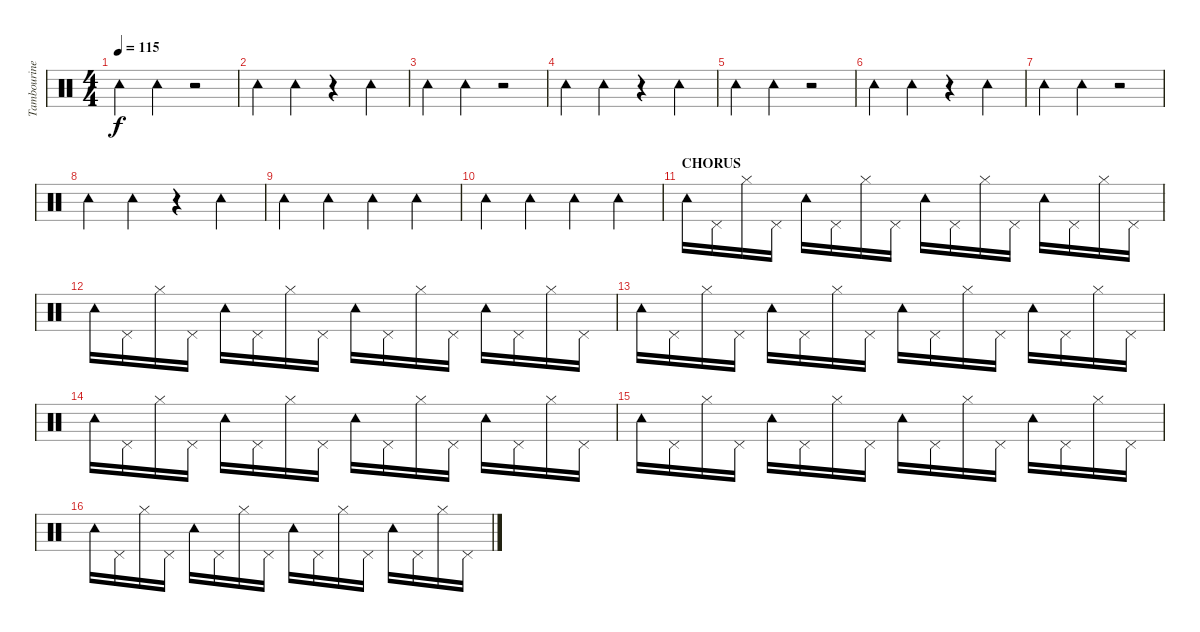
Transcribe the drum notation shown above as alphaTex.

\track ("Tambourine" "Tambourine") {instrument percussion}
\staff {score}
\articulation defaults
\ts (4 4)
\tempo 115
\clef neutral
\ks c "Tambourine (hit)".4{dy f} "Tambourine (hit)".4
r.2 |
"Tambourine (hit)".4 "Tambourine (hit)".4 r.4 "Tambourine (hit)".4 |
"Tambourine (hit)".4 "Tambourine (hit)".4 r.2 |
"Tambourine (hit)".4 "Tambourine (hit)".4 r.4 "Tambourine (hit)".4 |
"Tambourine (hit)".4 "Tambourine (hit)".4 r.2 |
"Tambourine (hit)".4 "Tambourine (hit)".4 r.4 "Tambourine (hit)".4 |
"Tambourine (hit)".4 "Tambourine (hit)".4 r.2 |
"Tambourine (hit)".4 "Tambourine (hit)".4 r.4 "Tambourine (hit)".4 |
"Tambourine (hit)".4 "Tambourine (hit)".4 "Tambourine (hit)".4 "Tambourine (hit)".4 |
"Tambourine (hit)".4 "Tambourine (hit)".4 "Tambourine (hit)".4 "Tambourine (hit)".4 |
\section ("" "CHORUS")
"Tambourine (hit)".16 "Pedal Hi-Hat (hit)".16 "Hi-Hat (closed)".16 "Pedal Hi-Hat (hit)".16 "Tambourine (hit)".16 "Pedal Hi-Hat (hit)".16 "Hi-Hat (closed)".16 "Pedal Hi-Hat (hit)".16 "Tambourine (hit)".16 "Pedal Hi-Hat (hit)".16 "Hi-Hat (closed)".16 "Pedal Hi-Hat (hit)".16 "Tambourine (hit)".16 "Pedal Hi-Hat (hit)".16 "Hi-Hat (closed)".16 "Pedal Hi-Hat (hit)".16 |
"Tambourine (hit)".16 "Pedal Hi-Hat (hit)".16 "Hi-Hat (closed)".16 "Pedal Hi-Hat (hit)".16 "Tambourine (hit)".16 "Pedal Hi-Hat (hit)".16 "Hi-Hat (closed)".16 "Pedal Hi-Hat (hit)".16 "Tambourine (hit)".16 "Pedal Hi-Hat (hit)".16 "Hi-Hat (closed)".16 "Pedal Hi-Hat (hit)".16 "Tambourine (hit)".16 "Pedal Hi-Hat (hit)".16 "Hi-Hat (closed)".16 "Pedal Hi-Hat (hit)".16 |
"Tambourine (hit)".16 "Pedal Hi-Hat (hit)".16 "Hi-Hat (closed)".16 "Pedal Hi-Hat (hit)".16 "Tambourine (hit)".16 "Pedal Hi-Hat (hit)".16 "Hi-Hat (closed)".16 "Pedal Hi-Hat (hit)".16 "Tambourine (hit)".16 "Pedal Hi-Hat (hit)".16 "Hi-Hat (closed)".16 "Pedal Hi-Hat (hit)".16 "Tambourine (hit)".16 "Pedal Hi-Hat (hit)".16 "Hi-Hat (closed)".16 "Pedal Hi-Hat (hit)".16 |
"Tambourine (hit)".16 "Pedal Hi-Hat (hit)".16 "Hi-Hat (closed)".16 "Pedal Hi-Hat (hit)".16 "Tambourine (hit)".16 "Pedal Hi-Hat (hit)".16 "Hi-Hat (closed)".16 "Pedal Hi-Hat (hit)".16 "Tambourine (hit)".16 "Pedal Hi-Hat (hit)".16 "Hi-Hat (closed)".16 "Pedal Hi-Hat (hit)".16 "Tambourine (hit)".16 "Pedal Hi-Hat (hit)".16 "Hi-Hat (closed)".16 "Pedal Hi-Hat (hit)".16 |
"Tambourine (hit)".16 "Pedal Hi-Hat (hit)".16 "Hi-Hat (closed)".16 "Pedal Hi-Hat (hit)".16 "Tambourine (hit)".16 "Pedal Hi-Hat (hit)".16 "Hi-Hat (closed)".16 "Pedal Hi-Hat (hit)".16 "Tambourine (hit)".16 "Pedal Hi-Hat (hit)".16 "Hi-Hat (closed)".16 "Pedal Hi-Hat (hit)".16 "Tambourine (hit)".16 "Pedal Hi-Hat (hit)".16 "Hi-Hat (closed)".16 "Pedal Hi-Hat (hit)".16 |
"Tambourine (hit)".16 "Pedal Hi-Hat (hit)".16 "Hi-Hat (closed)".16 "Pedal Hi-Hat (hit)".16 "Tambourine (hit)".16 "Pedal Hi-Hat (hit)".16 "Hi-Hat (closed)".16 "Pedal Hi-Hat (hit)".16 "Tambourine (hit)".16 "Pedal Hi-Hat (hit)".16 "Hi-Hat (closed)".16 "Pedal Hi-Hat (hit)".16 "Tambourine (hit)".16 "Pedal Hi-Hat (hit)".16 "Hi-Hat (closed)".16 "Pedal Hi-Hat (hit)".16
